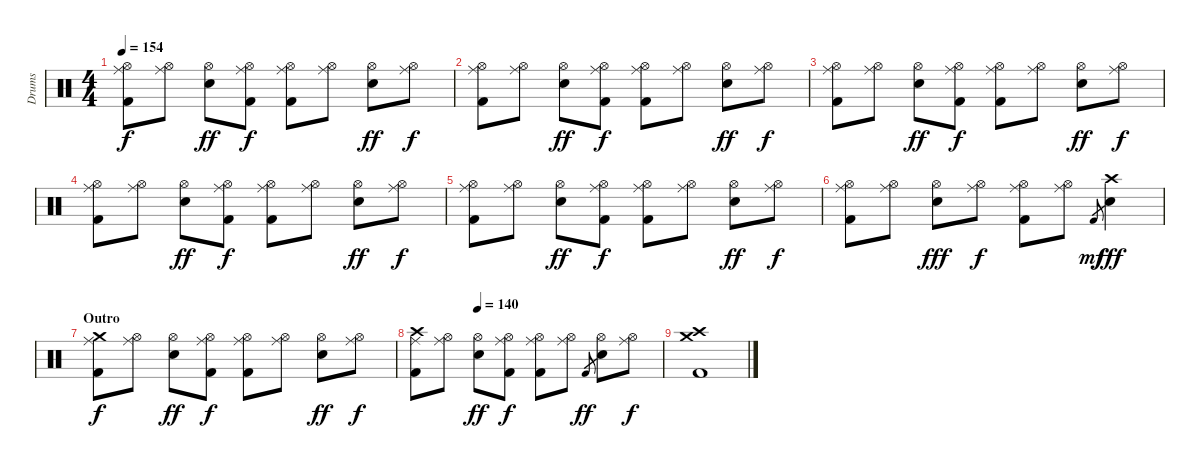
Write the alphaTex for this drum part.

\track ("Drums" "Drums") {instrument percussion}
\staff {score}
\articulation defaults
\ts (4 4)
\tempo 154
\clef neutral
\ks c
("Hi-Hat (open)" "Ride (middle)" "Kick (hit) 2").8{dy f} ("Hi-Hat (open)" "Ride (middle)").8 ("Hi-Hat (open)" "Electric Snare (hit)").8{dy ff} ("Hi-Hat (open)" "Ride (middle)" "Kick (hit) 2").8{dy f} ("Hi-Hat (open)" "Ride (middle)" "Kick (hit) 2").8 ("Hi-Hat (open)" "Ride (middle)").8 ("Hi-Hat (open)" "Electric Snare (hit)").8{dy ff} ("Hi-Hat (open)" "Ride (middle)").8{dy f} |
("Hi-Hat (open)" "Ride (middle)" "Kick (hit) 2").8 ("Hi-Hat (open)" "Ride (middle)").8 ("Hi-Hat (open)" "Electric Snare (hit)").8{dy ff} ("Hi-Hat (open)" "Ride (middle)" "Kick (hit) 2").8{dy f} ("Hi-Hat (open)" "Ride (middle)" "Kick (hit) 2").8 ("Hi-Hat (open)" "Ride (middle)").8 ("Hi-Hat (open)" "Electric Snare (hit)").8{dy ff} ("Hi-Hat (open)" "Ride (middle)").8{dy f} |
("Hi-Hat (open)" "Ride (middle)" "Kick (hit) 2").8 ("Hi-Hat (open)" "Ride (middle)").8 ("Hi-Hat (open)" "Electric Snare (hit)").8{dy ff} ("Hi-Hat (open)" "Ride (middle)" "Kick (hit) 2").8{dy f} ("Hi-Hat (open)" "Ride (middle)" "Kick (hit) 2").8 ("Hi-Hat (open)" "Ride (middle)").8 ("Hi-Hat (open)" "Electric Snare (hit)").8{dy ff} ("Hi-Hat (open)" "Ride (middle)").8{dy f} |
("Hi-Hat (open)" "Ride (middle)" "Kick (hit) 2").8 ("Hi-Hat (open)" "Ride (middle)").8 ("Hi-Hat (open)" "Electric Snare (hit)").8{dy ff} ("Hi-Hat (open)" "Ride (middle)" "Kick (hit) 2").8{dy f} ("Hi-Hat (open)" "Ride (middle)" "Kick (hit) 2").8 ("Hi-Hat (open)" "Ride (middle)").8 ("Hi-Hat (open)" "Electric Snare (hit)").8{dy ff} ("Hi-Hat (open)" "Ride (middle)").8{dy f} |
("Hi-Hat (open)" "Ride (middle)" "Kick (hit) 2").8 ("Hi-Hat (open)" "Ride (middle)").8 ("Hi-Hat (open)" "Electric Snare (hit)").8{dy ff} ("Hi-Hat (open)" "Ride (middle)" "Kick (hit) 2").8{dy f} ("Hi-Hat (open)" "Ride (middle)" "Kick (hit) 2").8 ("Hi-Hat (open)" "Ride (middle)").8 ("Hi-Hat (open)" "Electric Snare (hit)").8{dy ff} ("Hi-Hat (open)" "Ride (middle)").8{dy f} |
("Hi-Hat (open)" "Ride (middle)" "Kick (hit) 2").8 ("Hi-Hat (open)" "Ride (middle)").8 ("Hi-Hat (open)" "Electric Snare (hit)").8{dy fff} ("Hi-Hat (open)" "Ride (middle)").8{dy f} ("Hi-Hat (open)" "Ride (middle)" "Kick (hit) 2").8 ("Hi-Hat (open)" "Ride (middle)").8 "Kick (hit) 2".8{gr dy mf} ("Crash high (hit)" "Electric Snare (hit)").4{dy fff} |
\section ("" "Outro")
("Crash medium (hit)" "Ride (middle)" "Kick (hit) 2").8{dy f} ("Hi-Hat (open)" "Ride (middle)").8 ("Hi-Hat (open)" "Electric Snare (hit)").8{dy ff} ("Hi-Hat (open)" "Ride (middle)" "Kick (hit) 2").8{dy f} ("Hi-Hat (open)" "Ride (middle)" "Kick (hit) 2").8 ("Hi-Hat (open)" "Ride (middle)").8 ("Hi-Hat (open)" "Electric Snare (hit)").8{dy ff} ("Hi-Hat (open)" "Ride (middle)").8{dy f} |
\tempo (140 0.25)
("Crash high (hit)" "Ride (middle)" "Kick (hit) 2").8 ("Hi-Hat (open)" "Ride (middle)").8 ("Hi-Hat (open)" "Electric Snare (hit)").8{dy ff} ("Hi-Hat (open)" "Ride (middle)" "Kick (hit) 2").8{dy f} ("Hi-Hat (open)" "Ride (middle)" "Kick (hit) 2").8 ("Hi-Hat (open)" "Ride (middle)").8 "Kick (hit) 2".8{gr dy ff} ("Hi-Hat (open)" "Electric Snare (hit)").8 ("Hi-Hat (open)" "Ride (middle)").8{dy f} |
("Crash high (hit)" "Crash medium (hit)" "Kick (hit) 2").1
